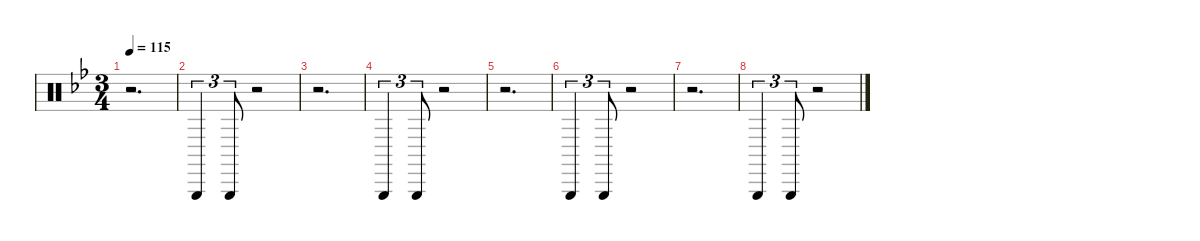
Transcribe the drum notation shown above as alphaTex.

\defaultSystemsLayout 4
\hideDynamics
\bracketExtendMode nobrackets
\singleTrackTrackNamePolicy hidden
\multiTrackTrackNamePolicy hidden
\firstSystemTrackNameMode fullname
\firstSystemTrackNameOrientation horizontal
\otherSystemsTrackNameOrientation horizontal
\track ("Percussion" "drm.") {defaultSystemsLayout 16 instrument percussion}
\staff {score}
\articulation defaults
\ts (3 4)
\tempo 115
\clef neutral
\ks gminor
r.2{d dy p beam Down} |
"Triangle (hit)"{acc forcenatural}.4{tu (3 2) dy mf beam Up} "Triangle (hit)"{acc forcenatural}.8{tu (3 2) dy p beam Up} r.2{beam Up} |
r.2{d beam Down} |
"Triangle (hit)"{acc forcenatural}.4{tu (3 2) dy mf beam Up} "Triangle (hit)"{acc forcenatural}.8{tu (3 2) dy p beam Up} r.2{beam Up} |
r.2{d beam Down} |
"Triangle (hit)"{acc forcenatural}.4{tu (3 2) dy mf beam Up} "Triangle (hit)"{acc forcenatural}.8{tu (3 2) dy p beam Up} r.2{beam Up} |
r.2{d beam Down} |
"Triangle (hit)"{acc forcenatural}.4{tu (3 2) dy mf beam Up} "Triangle (hit)"{acc forcenatural}.8{tu (3 2) dy p beam Up} r.2{beam Up}
